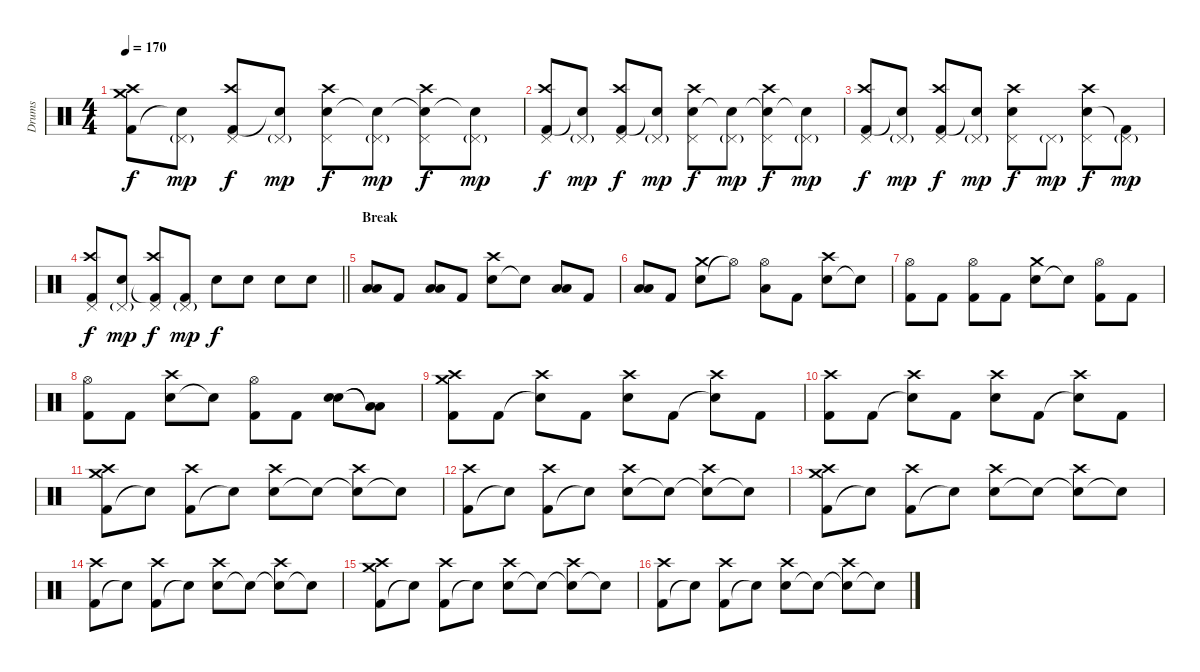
\track ("Drums" "Drums") {instrument percussion}
\staff {score}
\articulation defaults
\ts (4 4)
\tempo 170
\clef neutral
\ks c
("Kick (hit) 2" "Crash medium (hit)" "Crash high (hit)").8{dy f} ("Snare (hit)"{t} "Pedal Hi-Hat (hit)"{g}).8{dy mp} ("Kick (hit) 2" "Pedal Hi-Hat (hit)" "Crash high (hit)").8{dy f} ("Snare (hit)"{t} "Pedal Hi-Hat (hit)"{g}).8{dy mp} ("Electric Snare (hit)" "Pedal Hi-Hat (hit)" "Crash high (hit)").8{dy f} ("Snare (hit)"{t} "Pedal Hi-Hat (hit)"{g}).8{dy mp} ("Snare (hit)"{t} "Pedal Hi-Hat (hit)" "Crash high (hit)").8{dy f} ("Snare (hit)"{t} "Pedal Hi-Hat (hit)"{g}).8{dy mp} |
("Kick (hit) 2" "Pedal Hi-Hat (hit)" "Crash high (hit)").8{dy f} ("Snare (hit)"{t} "Pedal Hi-Hat (hit)"{g}).8{dy mp} ("Kick (hit) 2" "Pedal Hi-Hat (hit)" "Crash high (hit)").8{dy f} ("Snare (hit)"{t} "Pedal Hi-Hat (hit)"{g}).8{dy mp} ("Electric Snare (hit)" "Pedal Hi-Hat (hit)" "Crash high (hit)").8{dy f} ("Snare (hit)"{t} "Pedal Hi-Hat (hit)"{g}).8{dy mp} ("Snare (hit)"{t} "Pedal Hi-Hat (hit)" "Crash high (hit)").8{dy f} ("Snare (hit)"{t} "Pedal Hi-Hat (hit)"{g}).8{dy mp} |
("Kick (hit) 2" "Pedal Hi-Hat (hit)" "Crash high (hit)").8{dy f} ("Snare (hit)"{t} "Pedal Hi-Hat (hit)"{g}).8{dy mp} ("Kick (hit) 2" "Pedal Hi-Hat (hit)" "Crash high (hit)").8{dy f} ("Snare (hit)"{t} "Pedal Hi-Hat (hit)"{g}).8{dy mp} ("Electric Snare (hit)" "Pedal Hi-Hat (hit)" "Crash high (hit)").8{dy f} "Pedal Hi-Hat (hit)"{g}.8{dy mp} ("Electric Snare (hit)" "Pedal Hi-Hat (hit)" "Crash high (hit)").8{dy f} ("Kick (hit) 2"{t} "Pedal Hi-Hat (hit)"{g}).8{dy mp} |
\barLineRight lightlight
("Kick (hit) 2" "Pedal Hi-Hat (hit)" "Crash high (hit)").8{dy f} ("Electric Snare (hit)" "Pedal Hi-Hat (hit)"{g}).8{dy mp} ("Kick (hit) 2"{t} "Pedal Hi-Hat (hit)" "Crash high (hit)").8{dy f} ("Kick (hit) 2" "Pedal Hi-Hat (hit)"{g}).8{dy mp} "Electric Snare (hit)".8{dy f} "Electric Snare (hit)".8 "Electric Snare (hit)".8 "Electric Snare (hit)".8 |
\section ("" "Break")
("Low Tom (hit)" "Low Floor Tom (hit)").8 "Kick (hit) 2".8 ("Low Tom (hit)" "Low Floor Tom (hit)").8 "Kick (hit) 2".8 ("Electric Snare (hit)" "Crash high (hit)").8 "Snare (hit)"{t}.8 ("Low Tom (hit)" "Low Floor Tom (hit)").8 "Kick (hit) 2".8 |
("Low Tom (hit)" "Low Floor Tom (hit)").8 "Kick (hit) 2".8 ("Electric Snare (hit)" "Crash medium (hit)").8 "Hi-Hat (open)"{t}.8 ("Hi-Hat (open)" "Low Floor Tom (hit)").8 "Kick (hit) 2".8 ("Electric Snare (hit)" "Crash high (hit)").8 "Snare (hit)"{t}.8 |
("Kick (hit) 2" "Hi-Hat (open)").8 "Kick (hit) 2".8 ("Kick (hit) 2" "Hi-Hat (open)").8 "Kick (hit) 2".8 ("Electric Snare (hit)" "Crash medium (hit)").8 "Snare (hit)"{t}.8 ("Kick (hit) 2" "Hi-Hat (open)").8 "Kick (hit) 2".8 |
("Kick (hit) 2" "Hi-Hat (open)").8 "Kick (hit) 2".8 ("Electric Snare (hit)" "Crash high (hit)").8 "Snare (hit)"{t}.8 ("Kick (hit) 2" "Hi-Hat (open)").8 "Kick (hit) 2".8 ("Electric Snare (hit)" "Electric Snare (hit)").8 ("Low Tom (hit)"{t} "Low Floor Tom (hit)"{t}).8 |
("Kick (hit) 2" "Crash medium (hit)" "Crash high (hit)").8 "Kick (hit) 2".8 ("Snare (hit)"{t} "Crash high (hit)").8 "Kick (hit) 2".8 ("Electric Snare (hit)" "Crash high (hit)").8 "Kick (hit) 2".8 ("Snare (hit)"{t} "Crash high (hit)").8 "Kick (hit) 2".8 |
("Kick (hit) 2" "Crash high (hit)").8 "Kick (hit) 2".8 ("Snare (hit)"{t} "Crash high (hit)").8 "Kick (hit) 2".8 ("Electric Snare (hit)" "Crash high (hit)").8 "Kick (hit) 2".8 ("Snare (hit)"{t} "Crash high (hit)").8 "Kick (hit) 2".8 |
("Kick (hit) 2" "Crash medium (hit)" "Crash high (hit)").8 "Snare (hit)"{t}.8 ("Kick (hit) 2" "Crash high (hit)").8 "Snare (hit)"{t}.8 ("Electric Snare (hit)" "Crash high (hit)").8 "Snare (hit)"{t}.8 ("Snare (hit)"{t} "Crash high (hit)").8 "Snare (hit)"{t}.8 |
("Kick (hit) 2" "Crash high (hit)").8 "Snare (hit)"{t}.8 ("Kick (hit) 2" "Crash high (hit)").8 "Snare (hit)"{t}.8 ("Electric Snare (hit)" "Crash high (hit)").8 "Snare (hit)"{t}.8 ("Snare (hit)"{t} "Crash high (hit)").8 "Snare (hit)"{t}.8 |
("Kick (hit) 2" "Crash medium (hit)" "Crash high (hit)").8 "Snare (hit)"{t}.8 ("Kick (hit) 2" "Crash high (hit)").8 "Snare (hit)"{t}.8 ("Electric Snare (hit)" "Crash high (hit)").8 "Snare (hit)"{t}.8 ("Snare (hit)"{t} "Crash high (hit)").8 "Snare (hit)"{t}.8 |
("Kick (hit) 2" "Crash high (hit)").8 "Snare (hit)"{t}.8 ("Kick (hit) 2" "Crash high (hit)").8 "Snare (hit)"{t}.8 ("Electric Snare (hit)" "Crash high (hit)").8 "Snare (hit)"{t}.8 ("Snare (hit)"{t} "Crash high (hit)").8 "Snare (hit)"{t}.8 |
("Kick (hit) 2" "Crash medium (hit)" "Crash high (hit)").8 "Snare (hit)"{t}.8 ("Kick (hit) 2" "Crash high (hit)").8 "Snare (hit)"{t}.8 ("Electric Snare (hit)" "Crash high (hit)").8 "Snare (hit)"{t}.8 ("Snare (hit)"{t} "Crash high (hit)").8 "Snare (hit)"{t}.8 |
("Kick (hit) 2" "Crash high (hit)").8 "Snare (hit)"{t}.8 ("Kick (hit) 2" "Crash high (hit)").8 "Snare (hit)"{t}.8 ("Electric Snare (hit)" "Crash high (hit)").8 "Snare (hit)"{t}.8 ("Snare (hit)"{t} "Crash high (hit)").8 "Snare (hit)"{t}.8
